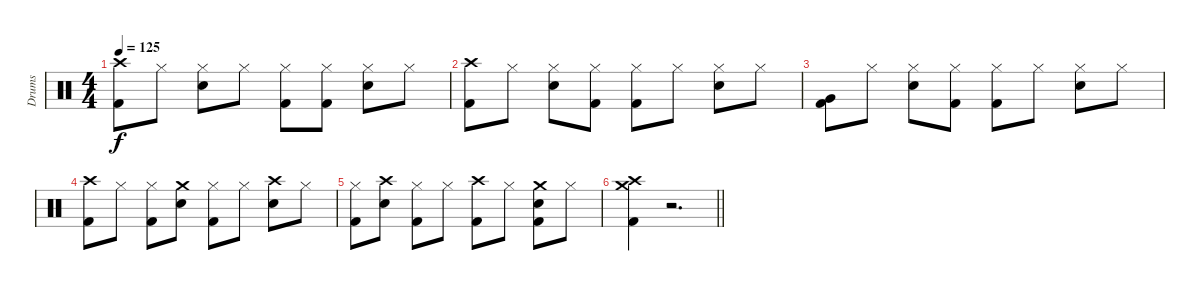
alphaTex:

\track ("Drums" "Drums") {instrument percussion}
\staff {score}
\articulation defaults
\ts (4 4)
\tempo 125
\clef neutral
\ks c
("Crash high (hit)" "Kick (hit) 2").8{dy f} "Hi-Hat (closed)".8 ("Hi-Hat (closed)" "Electric Snare (hit)").8 "Hi-Hat (closed)".8 ("Hi-Hat (closed)" "Kick (hit) 2").8 ("Hi-Hat (closed)" "Kick (hit) 2").8 ("Hi-Hat (closed)" "Electric Snare (hit)").8 "Hi-Hat (closed)".8 |
("Crash high (hit)" "Kick (hit) 2").8 "Hi-Hat (closed)".8 ("Hi-Hat (closed)" "Electric Snare (hit)").8 ("Hi-Hat (closed)" "Kick (hit) 2").8 ("Hi-Hat (closed)" "Kick (hit) 2").8 "Hi-Hat (closed)".8 ("Hi-Hat (closed)" "Electric Snare (hit)").8 "Hi-Hat (closed)".8 |
("Very Low Tom (hit)" "Kick (hit) 2").8 "Hi-Hat (closed)".8 ("Hi-Hat (closed)" "Electric Snare (hit)").8 ("Hi-Hat (closed)" "Kick (hit) 2").8 ("Hi-Hat (closed)" "Kick (hit) 2").8 "Hi-Hat (closed)".8 ("Hi-Hat (closed)" "Electric Snare (hit)").8 "Hi-Hat (closed)".8 |
("Crash high (hit)" "Kick (hit) 2").8 "Hi-Hat (closed)".8 ("Hi-Hat (closed)" "Kick (hit) 2").8 ("Crash medium (hit)" "Electric Snare (hit)").8 ("Hi-Hat (closed)" "Kick (hit) 2").8 "Hi-Hat (closed)".8 ("Crash high (hit)" "Electric Snare (hit)").8 "Hi-Hat (closed)".8 |
("Hi-Hat (closed)" "Kick (hit) 2").8 ("Crash high (hit)" "Electric Snare (hit)").8 ("Hi-Hat (closed)" "Kick (hit) 2").8 "Hi-Hat (closed)".8 ("Crash high (hit)" "Kick (hit) 2").8 "Hi-Hat (closed)".8 ("Crash medium (hit)" "Electric Snare (hit)" "Kick (hit) 2").8 "Hi-Hat (closed)".8 |
\barLineRight lightlight
("Crash high (hit)" "Crash medium (hit)" "Kick (hit) 2").4 r.2{d}
